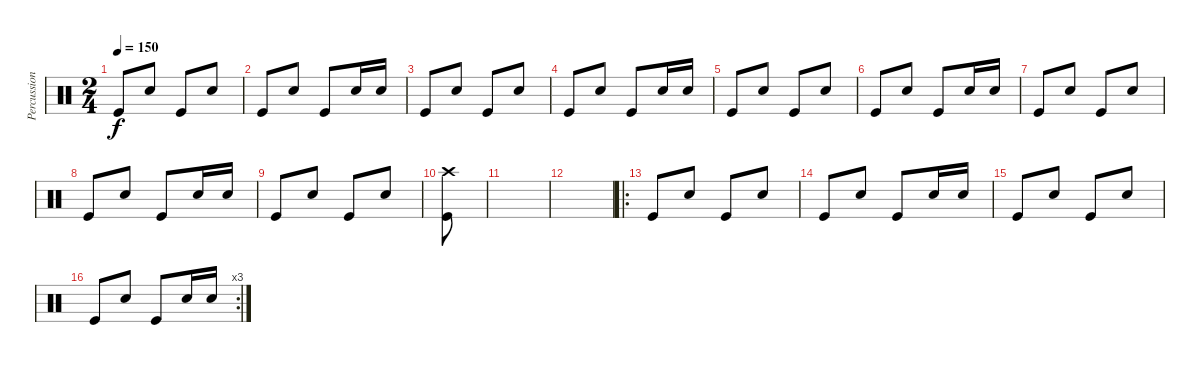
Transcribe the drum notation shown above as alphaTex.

\track ("Percussions" "Percussion") {instrument percussion}
\staff {score}
\articulation defaults
\ts (2 4)
\tempo 150
\clef neutral
\ks c "Kick (hit)".8{dy f} "Electric Snare (hit)".8 "Kick (hit)".8 "Electric Snare (hit)".8
|
"Kick (hit)".8 "Electric Snare (hit)".8 "Kick (hit)".8 "Electric Snare (hit)".16 "Electric Snare (hit)".16 |
"Kick (hit)".8 "Electric Snare (hit)".8 "Kick (hit)".8 "Electric Snare (hit)".8 |
"Kick (hit)".8 "Electric Snare (hit)".8 "Kick (hit)".8 "Electric Snare (hit)".16 "Electric Snare (hit)".16 |
"Kick (hit)".8 "Electric Snare (hit)".8 "Kick (hit)".8 "Electric Snare (hit)".8 |
"Kick (hit)".8 "Electric Snare (hit)".8 "Kick (hit)".8 "Electric Snare (hit)".16 "Electric Snare (hit)".16 |
"Kick (hit)".8 "Electric Snare (hit)".8 "Kick (hit)".8 "Electric Snare (hit)".8 |
"Kick (hit)".8 "Electric Snare (hit)".8 "Kick (hit)".8 "Electric Snare (hit)".16 "Electric Snare (hit)".16 |
"Kick (hit)".8 "Electric Snare (hit)".8 "Kick (hit)".8 "Electric Snare (hit)".8 |
("Crash high (hit)" "Kick (hit)").8 |
|
|
\ro "Kick (hit)".8 "Electric Snare (hit)".8 "Kick (hit)".8 "Electric Snare (hit)".8
|
"Kick (hit)".8 "Electric Snare (hit)".8 "Kick (hit)".8 "Electric Snare (hit)".16 "Electric Snare (hit)".16 |
"Kick (hit)".8 "Electric Snare (hit)".8 "Kick (hit)".8 "Electric Snare (hit)".8 |
\rc 3 "Kick (hit)".8 "Electric Snare (hit)".8 "Kick (hit)".8 "Electric Snare (hit)".16 "Electric Snare (hit)".16
